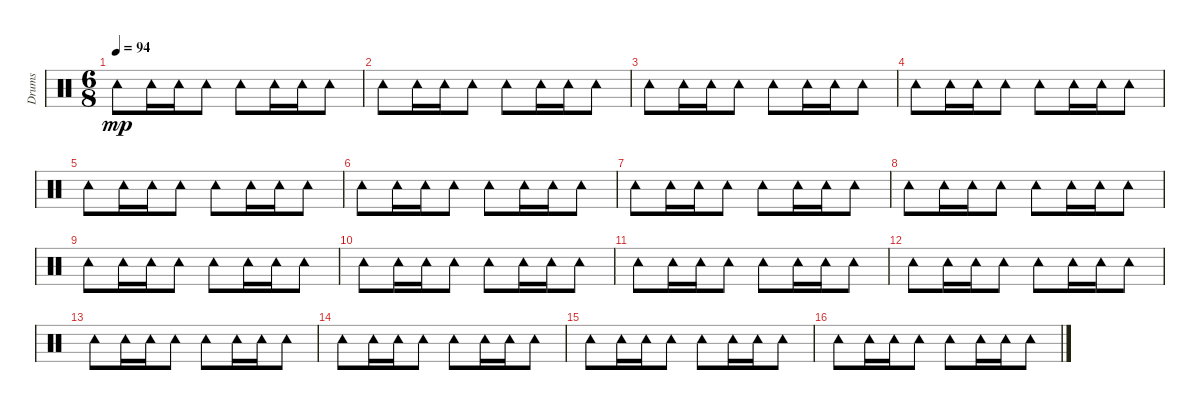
\track ("Drums" "Drums") {instrument percussion}
\staff {score}
\articulation defaults
\ts (6 8)
\tempo 94
\clef neutral
\ks c "Tambourine (hit)".8{dy mp} "Tambourine (hit)".16 "Tambourine (hit)".16 "Tambourine (hit)".8 "Tambourine (hit)".8 "Tambourine (hit)".16 "Tambourine (hit)".16 "Tambourine (hit)".8
|
"Tambourine (hit)".8 "Tambourine (hit)".16 "Tambourine (hit)".16 "Tambourine (hit)".8 "Tambourine (hit)".8 "Tambourine (hit)".16 "Tambourine (hit)".16 "Tambourine (hit)".8 |
"Tambourine (hit)".8 "Tambourine (hit)".16 "Tambourine (hit)".16 "Tambourine (hit)".8 "Tambourine (hit)".8 "Tambourine (hit)".16 "Tambourine (hit)".16 "Tambourine (hit)".8 |
"Tambourine (hit)".8 "Tambourine (hit)".16 "Tambourine (hit)".16 "Tambourine (hit)".8 "Tambourine (hit)".8 "Tambourine (hit)".16 "Tambourine (hit)".16 "Tambourine (hit)".8 |
"Tambourine (hit)".8 "Tambourine (hit)".16 "Tambourine (hit)".16 "Tambourine (hit)".8 "Tambourine (hit)".8 "Tambourine (hit)".16 "Tambourine (hit)".16 "Tambourine (hit)".8 |
"Tambourine (hit)".8 "Tambourine (hit)".16 "Tambourine (hit)".16 "Tambourine (hit)".8 "Tambourine (hit)".8 "Tambourine (hit)".16 "Tambourine (hit)".16 "Tambourine (hit)".8 |
"Tambourine (hit)".8 "Tambourine (hit)".16 "Tambourine (hit)".16 "Tambourine (hit)".8 "Tambourine (hit)".8 "Tambourine (hit)".16 "Tambourine (hit)".16 "Tambourine (hit)".8 |
"Tambourine (hit)".8 "Tambourine (hit)".16 "Tambourine (hit)".16 "Tambourine (hit)".8 "Tambourine (hit)".8 "Tambourine (hit)".16 "Tambourine (hit)".16 "Tambourine (hit)".8 |
"Tambourine (hit)".8 "Tambourine (hit)".16 "Tambourine (hit)".16 "Tambourine (hit)".8 "Tambourine (hit)".8 "Tambourine (hit)".16 "Tambourine (hit)".16 "Tambourine (hit)".8 |
"Tambourine (hit)".8 "Tambourine (hit)".16 "Tambourine (hit)".16 "Tambourine (hit)".8 "Tambourine (hit)".8 "Tambourine (hit)".16 "Tambourine (hit)".16 "Tambourine (hit)".8 |
"Tambourine (hit)".8 "Tambourine (hit)".16 "Tambourine (hit)".16 "Tambourine (hit)".8 "Tambourine (hit)".8 "Tambourine (hit)".16 "Tambourine (hit)".16 "Tambourine (hit)".8 |
"Tambourine (hit)".8 "Tambourine (hit)".16 "Tambourine (hit)".16 "Tambourine (hit)".8 "Tambourine (hit)".8 "Tambourine (hit)".16 "Tambourine (hit)".16 "Tambourine (hit)".8 |
"Tambourine (hit)".8 "Tambourine (hit)".16 "Tambourine (hit)".16 "Tambourine (hit)".8 "Tambourine (hit)".8 "Tambourine (hit)".16 "Tambourine (hit)".16 "Tambourine (hit)".8 |
"Tambourine (hit)".8 "Tambourine (hit)".16 "Tambourine (hit)".16 "Tambourine (hit)".8 "Tambourine (hit)".8 "Tambourine (hit)".16 "Tambourine (hit)".16 "Tambourine (hit)".8 |
"Tambourine (hit)".8 "Tambourine (hit)".16 "Tambourine (hit)".16 "Tambourine (hit)".8 "Tambourine (hit)".8 "Tambourine (hit)".16 "Tambourine (hit)".16 "Tambourine (hit)".8 |
"Tambourine (hit)".8 "Tambourine (hit)".16 "Tambourine (hit)".16 "Tambourine (hit)".8 "Tambourine (hit)".8 "Tambourine (hit)".16 "Tambourine (hit)".16 "Tambourine (hit)".8
